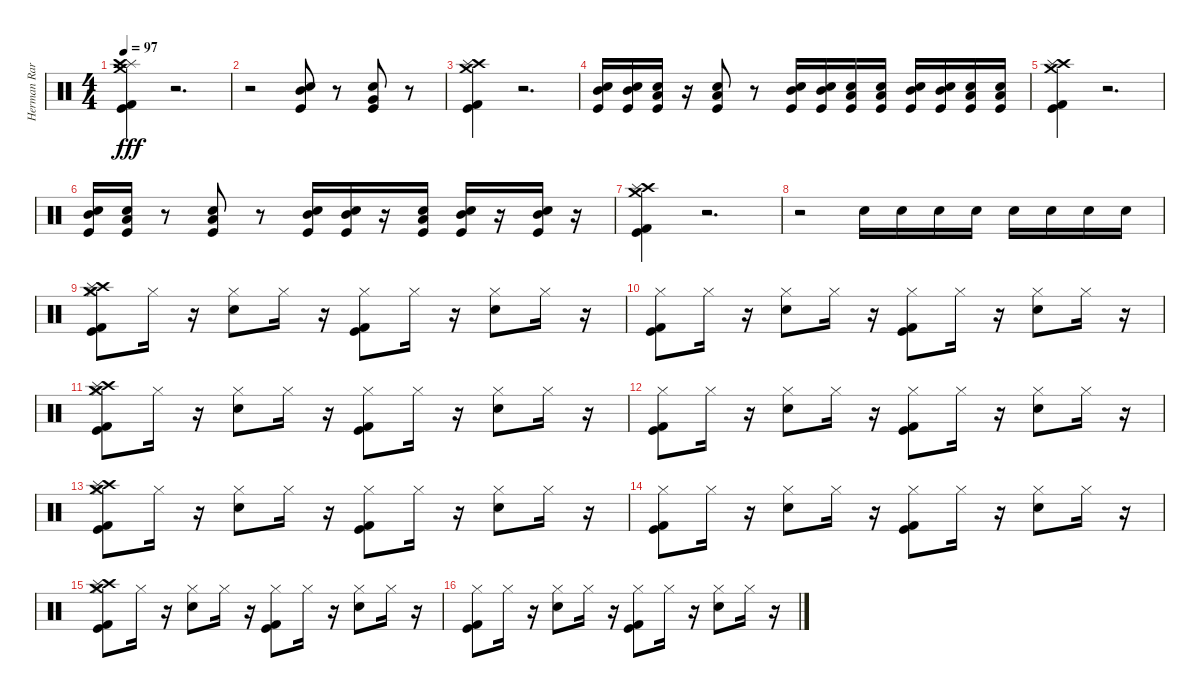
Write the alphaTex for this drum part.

\track ("Herman Rarebell" "Herman Rar") {instrument percussion}
\staff {score}
\articulation defaults
\ts (4 4)
\tempo 97
\clef neutral
\ks c
("Crash medium (hit)" "Splash (hit)" "Crash high (hit)" "Kick (hit) 2" "Kick (hit)").4{dy fff} r.2{d} |
r.2 ("Mid Tom (hit)" "Kick (hit)" "Electric Snare (hit)").8 r.8 ("Very Low Tom (hit)" "Kick (hit)" "Electric Snare (hit)").8 r.8 |
("Kick (hit) 2" "Kick (hit)" "Crash high (hit)" "Splash (hit)" "Crash medium (hit)").4 r.2{d} |
("Kick (hit)" "Mid Tom (hit)" "Electric Snare (hit)").16 ("Mid Tom (hit)" "Kick (hit)" "Electric Snare (hit)").16 ("Low Tom (hit)" "Kick (hit)" "Electric Snare (hit)").16 r.16 ("Kick (hit)" "Low Floor Tom (hit)" "Electric Snare (hit)").8 r.8 ("Mid Tom (hit)" "Kick (hit)" "Electric Snare (hit)").16 ("Mid Tom (hit)" "Kick (hit)" "Electric Snare (hit)").16 ("Low Tom (hit)" "Kick (hit)" "Electric Snare (hit)").16 ("Kick (hit)" "Low Floor Tom (hit)" "Electric Snare (hit)").16 ("Mid Tom (hit)" "Kick (hit)" "Electric Snare (hit)").16 ("Mid Tom (hit)" "Kick (hit)" "Electric Snare (hit)").16 ("Low Tom (hit)" "Kick (hit)" "Electric Snare (hit)").16 ("Kick (hit)" "Low Floor Tom (hit)" "Electric Snare (hit)").16 |
("Kick (hit)" "Kick (hit) 2" "Crash high (hit)" "Splash (hit)" "Crash medium (hit)").4 r.2{d} |
("Mid Tom (hit)" "Kick (hit)" "Electric Snare (hit)").16 ("Low Tom (hit)" "Kick (hit)" "Electric Snare (hit)").16 r.8 ("Kick (hit)" "Low Floor Tom (hit)" "Electric Snare (hit)").8 r.8 ("Mid Tom (hit)" "Kick (hit)" "Electric Snare (hit)").16 ("Mid Tom (hit)" "Kick (hit)" "Electric Snare (hit)").16 r.16 ("Kick (hit)" "Low Floor Tom (hit)" "Electric Snare (hit)").16 ("Mid Tom (hit)" "Kick (hit)" "Electric Snare (hit)").16 r.16 ("Mid Tom (hit)" "Kick (hit)" "Electric Snare (hit)").16 r.16 |
("Kick (hit)" "Kick (hit) 2" "Crash high (hit)" "Splash (hit)" "Crash medium (hit)").4 r.2{d} |
r.2 "Snare (hit) 2".16 "Snare (hit) 2".16 "Snare (hit) 2".16 "Snare (hit) 2".16 "Snare (hit) 2".16 "Snare (hit) 2".16 "Snare (hit) 2".16 "Snare (hit) 2".16 |
("Hi-Hat (closed)" "Crash high (hit)" "Splash (hit)" "Crash medium (hit)" "Kick (hit)" "Kick (hit) 2").8 "Hi-Hat (closed)".16 r.16 ("Snare (hit) 2" "Hi-Hat (closed)").8 "Hi-Hat (closed)".16 r.16 ("Kick (hit) 2" "Kick (hit)" "Hi-Hat (closed)").8 "Hi-Hat (closed)".16 r.16 ("Snare (hit) 2" "Hi-Hat (closed)").8 "Hi-Hat (closed)".16 r.16 |
("Hi-Hat (closed)" "Kick (hit)" "Kick (hit) 2").8 "Hi-Hat (closed)".16 r.16 ("Snare (hit) 2" "Hi-Hat (closed)").8 "Hi-Hat (closed)".16 r.16 ("Kick (hit) 2" "Kick (hit)" "Hi-Hat (closed)").8 "Hi-Hat (closed)".16 r.16 ("Snare (hit) 2" "Hi-Hat (closed)").8 "Hi-Hat (closed)".16 r.16 |
("Hi-Hat (closed)" "Crash high (hit)" "Splash (hit)" "Crash medium (hit)" "Kick (hit)" "Kick (hit) 2").8 "Hi-Hat (closed)".16 r.16 ("Snare (hit) 2" "Hi-Hat (closed)").8 "Hi-Hat (closed)".16 r.16 ("Kick (hit) 2" "Kick (hit)" "Hi-Hat (closed)").8 "Hi-Hat (closed)".16 r.16 ("Snare (hit) 2" "Hi-Hat (closed)").8 "Hi-Hat (closed)".16 r.16 |
("Hi-Hat (closed)" "Kick (hit)" "Kick (hit) 2").8 "Hi-Hat (closed)".16 r.16 ("Snare (hit) 2" "Hi-Hat (closed)").8 "Hi-Hat (closed)".16 r.16 ("Kick (hit) 2" "Kick (hit)" "Hi-Hat (closed)").8 "Hi-Hat (closed)".16 r.16 ("Snare (hit) 2" "Hi-Hat (closed)").8 "Hi-Hat (closed)".16 r.16 |
("Hi-Hat (closed)" "Crash high (hit)" "Splash (hit)" "Crash medium (hit)" "Kick (hit)" "Kick (hit) 2").8 "Hi-Hat (closed)".16 r.16 ("Snare (hit) 2" "Hi-Hat (closed)").8 "Hi-Hat (closed)".16 r.16 ("Kick (hit) 2" "Kick (hit)" "Hi-Hat (closed)").8 "Hi-Hat (closed)".16 r.16 ("Snare (hit) 2" "Hi-Hat (closed)").8 "Hi-Hat (closed)".16 r.16 |
("Hi-Hat (closed)" "Kick (hit)" "Kick (hit) 2").8 "Hi-Hat (closed)".16 r.16 ("Snare (hit) 2" "Hi-Hat (closed)").8 "Hi-Hat (closed)".16 r.16 ("Kick (hit) 2" "Kick (hit)" "Hi-Hat (closed)").8 "Hi-Hat (closed)".16 r.16 ("Snare (hit) 2" "Hi-Hat (closed)").8 "Hi-Hat (closed)".16 r.16 |
("Hi-Hat (closed)" "Crash high (hit)" "Splash (hit)" "Crash medium (hit)" "Kick (hit)" "Kick (hit) 2").8 "Hi-Hat (closed)".16 r.16 ("Snare (hit) 2" "Hi-Hat (closed)").8 "Hi-Hat (closed)".16 r.16 ("Kick (hit) 2" "Kick (hit)" "Hi-Hat (closed)").8 "Hi-Hat (closed)".16 r.16 ("Snare (hit) 2" "Hi-Hat (closed)").8 "Hi-Hat (closed)".16 r.16 |
("Hi-Hat (closed)" "Kick (hit)" "Kick (hit) 2").8 "Hi-Hat (closed)".16 r.16 ("Snare (hit) 2" "Hi-Hat (closed)").8 "Hi-Hat (closed)".16 r.16 ("Kick (hit) 2" "Kick (hit)" "Hi-Hat (closed)").8 "Hi-Hat (closed)".16 r.16 ("Snare (hit) 2" "Hi-Hat (closed)").8 "Hi-Hat (closed)".16 r.16
